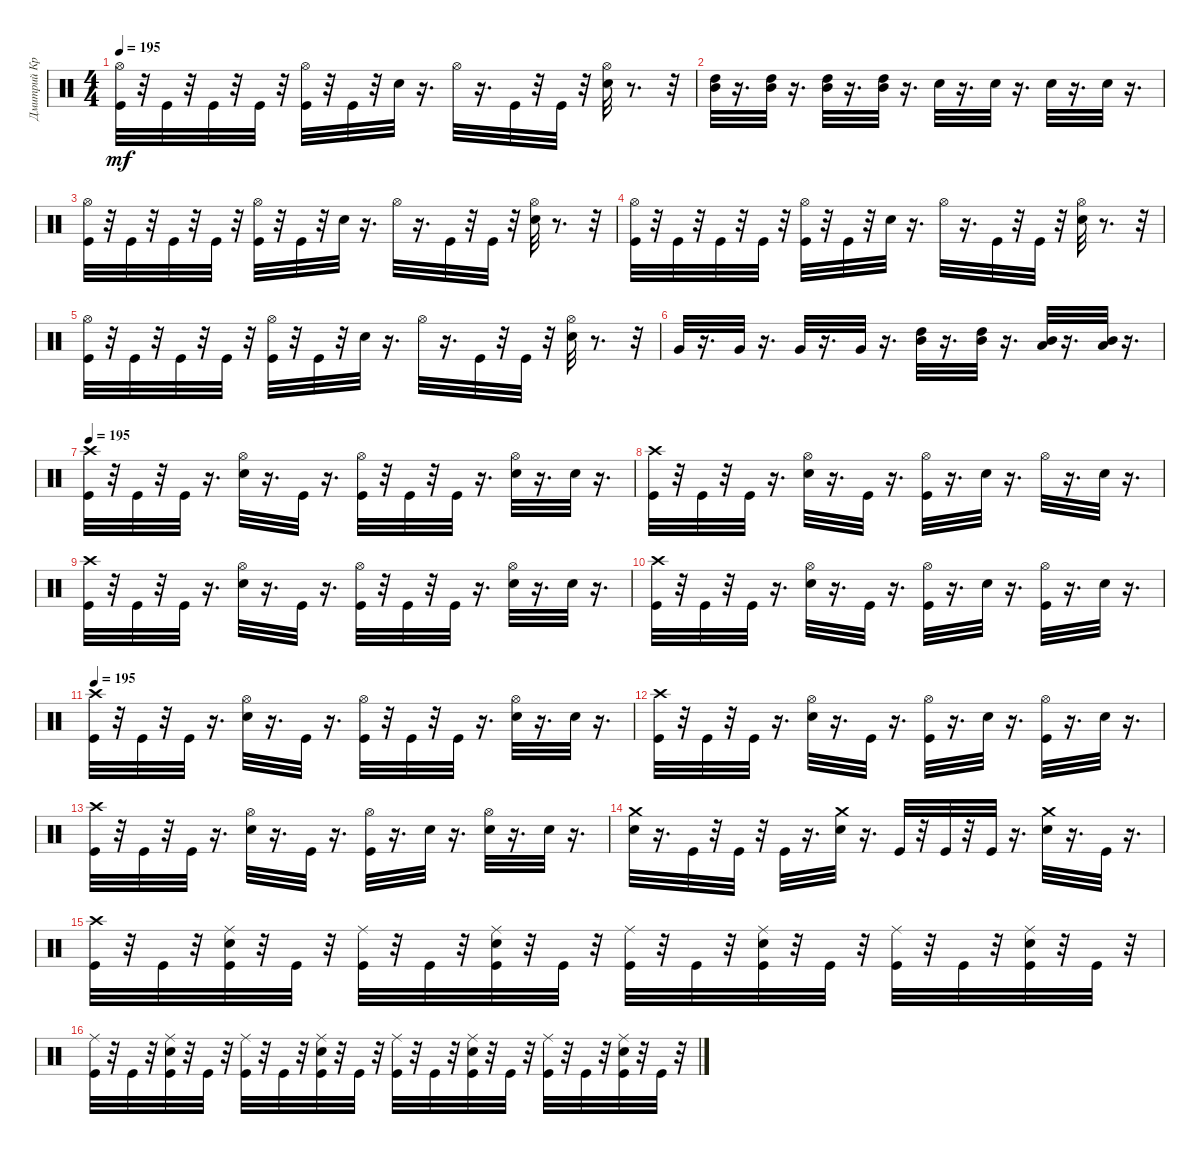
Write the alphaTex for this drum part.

\track ("Дмитрий Кривенков" "Дмитрий Кр") {instrument percussion}
\staff {score}
\articulation defaults
\ts (4 4)
\tempo 195
\clef neutral
\ks c
("Kick (hit)" "Hi-Hat (open)").32{dy mf} r.32 "Kick (hit)".32 r.32 "Kick (hit)".32 r.32 "Kick (hit)".32 r.32 ("Kick (hit)" "Hi-Hat (open)").32 r.32 "Kick (hit)".32 r.32 "Electric Snare (hit)".32 r.16{d} "Hi-Hat (open)".32 r.16{d} "Kick (hit)".32 r.32 "Kick (hit)".32 r.32 ("Electric Snare (hit)" "Hi-Hat (open)").32 r.8{d} r.32 |
("Mid Tom (hit)" "High Tom (hit)").32 r.16{d} ("Mid Tom (hit)" "High Tom (hit)").32 r.16{d} ("High Tom (hit)" "Mid Tom (hit)").32 r.16{d} ("High Tom (hit)" "Mid Tom (hit)").32 r.16{d} "Electric Snare (hit)".32 r.16{d} "Electric Snare (hit)".32 r.16{d} "Electric Snare (hit)".32 r.16{d} "Electric Snare (hit)".32 r.16{d} |
("Kick (hit)" "Hi-Hat (open)").32 r.32 "Kick (hit)".32 r.32 "Kick (hit)".32 r.32 "Kick (hit)".32 r.32 ("Kick (hit)" "Hi-Hat (open)").32 r.32 "Kick (hit)".32 r.32 "Electric Snare (hit)".32 r.16{d} "Hi-Hat (open)".32 r.16{d} "Kick (hit)".32 r.32 "Kick (hit)".32 r.32 ("Hi-Hat (open)" "Electric Snare (hit)").32 r.8{d} r.32 |
("Kick (hit)" "Hi-Hat (open)").32 r.32 "Kick (hit)".32 r.32 "Kick (hit)".32 r.32 "Kick (hit)".32 r.32 ("Kick (hit)" "Hi-Hat (open)").32 r.32 "Kick (hit)".32 r.32 "Electric Snare (hit)".32 r.16{d} "Hi-Hat (open)".32 r.16{d} "Kick (hit)".32 r.32 "Kick (hit)".32 r.32 ("Electric Snare (hit)" "Hi-Hat (open)").32 r.8{d} r.32 |
("Kick (hit)" "Hi-Hat (open)").32 r.32 "Kick (hit)".32 r.32 "Kick (hit)".32 r.32 "Kick (hit)".32 r.32 ("Kick (hit)" "Hi-Hat (open)").32 r.32 "Kick (hit)".32 r.32 "Electric Snare (hit)".32 r.16{d} "Hi-Hat (open)".32 r.16{d} "Kick (hit)".32 r.32 "Kick (hit)".32 r.32 ("Electric Snare (hit)" "Hi-Hat (open)").32 r.8{d} r.32 |
"Very Low Tom (hit)".32 r.16{d} "Very Low Tom (hit)".32 r.16{d} "Very Low Tom (hit)".32 r.16{d} "Very Low Tom (hit)".32 r.16{d} ("Mid Tom (hit)" "High Tom (hit)").32 r.16{d} ("Mid Tom (hit)" "High Tom (hit)").32 r.16{d} ("Low Tom (hit)" "Mid Tom (hit)").32 r.16{d} ("Low Tom (hit)" "Mid Tom (hit)").32 r.16{d} |
\tempo 195
("Kick (hit)" "Crash high (hit)").32 r.32 "Kick (hit)".32 r.32 "Kick (hit)".32 r.16{d} ("Hi-Hat (open)" "Electric Snare (hit)").32 r.16{d} "Kick (hit)".32 r.16{d} ("Kick (hit)" "Hi-Hat (open)").32 r.32 "Kick (hit)".32 r.32 "Kick (hit)".32 r.16{d} ("Hi-Hat (open)" "Electric Snare (hit)").32 r.16{d} "Electric Snare (hit)".32 r.16{d} |
("Crash high (hit)" "Kick (hit)").32 r.32 "Kick (hit)".32 r.32 "Kick (hit)".32 r.16{d} ("Electric Snare (hit)" "Hi-Hat (open)").32 r.16{d} "Kick (hit)".32 r.16{d} ("Kick (hit)" "Hi-Hat (open)").32 r.16{d} "Electric Snare (hit)".32 r.16{d} "Hi-Hat (open)".32 r.16{d} "Electric Snare (hit)".32 r.16{d} |
("Crash high (hit)" "Kick (hit)").32 r.32 "Kick (hit)".32 r.32 "Kick (hit)".32 r.16{d} ("Electric Snare (hit)" "Hi-Hat (open)").32 r.16{d} "Kick (hit)".32 r.16{d} ("Kick (hit)" "Hi-Hat (open)").32 r.32 "Kick (hit)".32 r.32 "Kick (hit)".32 r.16{d} ("Electric Snare (hit)" "Hi-Hat (open)").32 r.16{d} "Electric Snare (hit)".32 r.16{d} |
("Crash high (hit)" "Kick (hit)").32 r.32 "Kick (hit)".32 r.32 "Kick (hit)".32 r.16{d} ("Electric Snare (hit)" "Hi-Hat (open)").32 r.16{d} "Kick (hit)".32 r.16{d} ("Kick (hit)" "Hi-Hat (open)").32 r.16{d} "Electric Snare (hit)".32 r.16{d} ("Kick (hit)" "Hi-Hat (open)").32 r.16{d} "Electric Snare (hit)".32 r.16{d} |
\tempo 195
("Crash high (hit)" "Kick (hit)").32 r.32 "Kick (hit)".32 r.32 "Kick (hit)".32 r.16{d} ("Electric Snare (hit)" "Hi-Hat (open)").32 r.16{d} "Kick (hit)".32 r.16{d} ("Kick (hit)" "Hi-Hat (open)").32 r.32 "Kick (hit)".32 r.32 "Kick (hit)".32 r.16{d} ("Electric Snare (hit)" "Hi-Hat (open)").32 r.16{d} "Electric Snare (hit)".32 r.16{d} |
("Crash high (hit)" "Kick (hit)").32 r.32 "Kick (hit)".32 r.32 "Kick (hit)".32 r.16{d} ("Electric Snare (hit)" "Hi-Hat (open)").32 r.16{d} "Kick (hit)".32 r.16{d} ("Kick (hit)" "Hi-Hat (open)").32 r.16{d} "Electric Snare (hit)".32 r.16{d} ("Kick (hit)" "Hi-Hat (open)").32 r.16{d} "Electric Snare (hit)".32 r.16{d} |
("Crash high (hit)" "Kick (hit)").32 r.32 "Kick (hit)".32 r.32 "Kick (hit)".32 r.16{d} ("Electric Snare (hit)" "Hi-Hat (open)").32 r.16{d} "Kick (hit)".32 r.16{d} ("Kick (hit)" "Hi-Hat (open)").32 r.16{d} "Electric Snare (hit)".32 r.16{d} ("Electric Snare (hit)" "Hi-Hat (open)").32 r.16{d} "Electric Snare (hit)".32 r.16{d} |
("Crash medium (hit)" "Electric Snare (hit)").32 r.16{d} "Kick (hit)".32 r.32 "Kick (hit)".32 r.32 "Kick (hit)".32 r.16{d} ("Crash medium (hit)" "Electric Snare (hit)").32 r.16{d} "Kick (hit)".32 r.32 "Kick (hit)".32 r.32 "Kick (hit)".32 r.16{d} ("Crash medium (hit)" "Electric Snare (hit)").32 r.16{d} "Kick (hit)".32 r.16{d} |
("Crash high (hit)" "Kick (hit)").32 r.32 "Kick (hit)".32 r.32 ("Electric Snare (hit)" "Kick (hit)" "Ride (middle)").32 r.32 "Kick (hit)".32 r.32 ("Ride (middle)" "Kick (hit)").32 r.32 "Kick (hit)".32 r.32 ("Ride (middle)" "Electric Snare (hit)" "Kick (hit)").32 r.32 "Kick (hit)".32 r.32 ("Ride (middle)" "Kick (hit)").32 r.32 "Kick (hit)".32 r.32 ("Ride (middle)" "Kick (hit)" "Electric Snare (hit)").32 r.32 "Kick (hit)".32 r.32 ("Ride (middle)" "Kick (hit)").32 r.32 "Kick (hit)".32 r.32 ("Ride (middle)" "Electric Snare (hit)" "Kick (hit)").32 r.32 "Kick (hit)".32 r.32 |
("Ride (middle)" "Kick (hit)").32 r.32 "Kick (hit)".32 r.32 ("Electric Snare (hit)" "Kick (hit)" "Ride (middle)").32 r.32 "Kick (hit)".32 r.32 ("Ride (middle)" "Kick (hit)").32 r.32 "Kick (hit)".32 r.32 ("Ride (middle)" "Electric Snare (hit)" "Kick (hit)").32 r.32 "Kick (hit)".32 r.32 ("Ride (middle)" "Kick (hit)").32 r.32 "Kick (hit)".32 r.32 ("Ride (middle)" "Kick (hit)" "Electric Snare (hit)").32 r.32 "Kick (hit)".32 r.32 ("Ride (middle)" "Kick (hit)").32 r.32 "Kick (hit)".32 r.32 ("Ride (middle)" "Electric Snare (hit)" "Kick (hit)").32 r.32 "Kick (hit)".32 r.32
